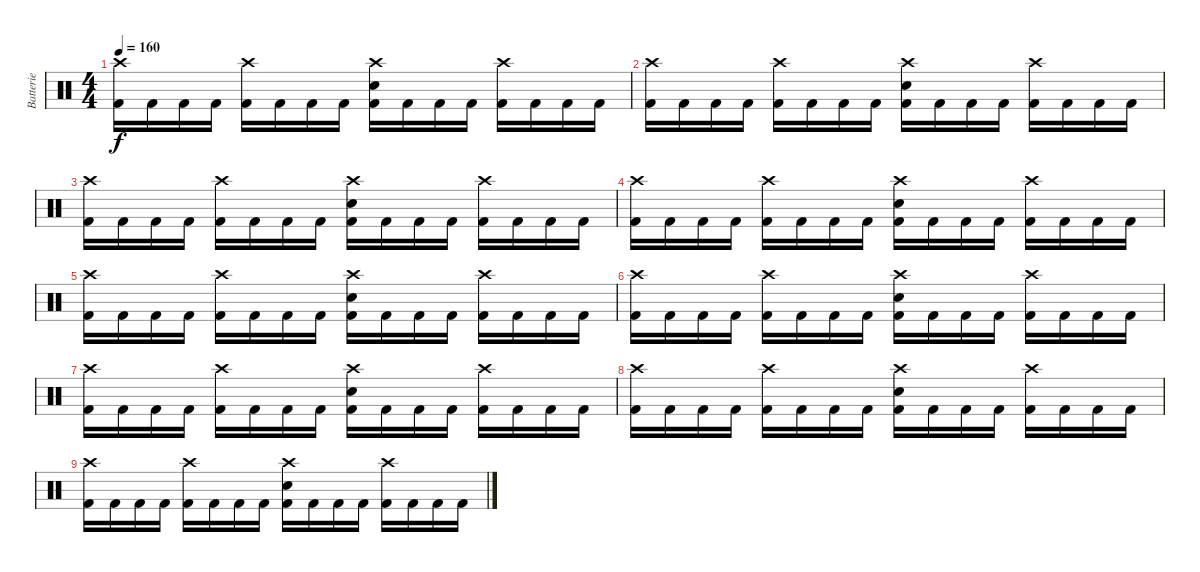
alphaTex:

\track ("Batterie" "Batterie") {instrument percussion}
\staff {score}
\articulation defaults
\ts (4 4)
\tempo 160
\clef neutral
\ks c
("Crash high (hit)" "Kick (hit) 2").16{dy f} "Kick (hit) 2".16 "Kick (hit) 2".16 "Kick (hit) 2".16 ("Crash high (hit)" "Kick (hit) 2").16 "Kick (hit) 2".16 "Kick (hit) 2".16 "Kick (hit) 2".16 ("Crash high (hit)" "Electric Snare (hit)" "Kick (hit) 2").16 "Kick (hit) 2".16 "Kick (hit) 2".16 "Kick (hit) 2".16 ("Crash high (hit)" "Kick (hit) 2").16 "Kick (hit) 2".16 "Kick (hit) 2".16 "Kick (hit) 2".16 |
("Crash high (hit)" "Kick (hit) 2").16 "Kick (hit) 2".16 "Kick (hit) 2".16 "Kick (hit) 2".16 ("Crash high (hit)" "Kick (hit) 2").16 "Kick (hit) 2".16 "Kick (hit) 2".16 "Kick (hit) 2".16 ("Crash high (hit)" "Electric Snare (hit)" "Kick (hit) 2").16 "Kick (hit) 2".16 "Kick (hit) 2".16 "Kick (hit) 2".16 ("Crash high (hit)" "Kick (hit) 2").16 "Kick (hit) 2".16 "Kick (hit) 2".16 "Kick (hit) 2".16 |
("Crash high (hit)" "Kick (hit) 2").16 "Kick (hit) 2".16 "Kick (hit) 2".16 "Kick (hit) 2".16 ("Crash high (hit)" "Kick (hit) 2").16 "Kick (hit) 2".16 "Kick (hit) 2".16 "Kick (hit) 2".16 ("Crash high (hit)" "Electric Snare (hit)" "Kick (hit) 2").16 "Kick (hit) 2".16 "Kick (hit) 2".16 "Kick (hit) 2".16 ("Crash high (hit)" "Kick (hit) 2").16 "Kick (hit) 2".16 "Kick (hit) 2".16 "Kick (hit) 2".16 |
("Crash high (hit)" "Kick (hit) 2").16 "Kick (hit) 2".16 "Kick (hit) 2".16 "Kick (hit) 2".16 ("Crash high (hit)" "Kick (hit) 2").16 "Kick (hit) 2".16 "Kick (hit) 2".16 "Kick (hit) 2".16 ("Crash high (hit)" "Electric Snare (hit)" "Kick (hit) 2").16 "Kick (hit) 2".16 "Kick (hit) 2".16 "Kick (hit) 2".16 ("Crash high (hit)" "Kick (hit) 2").16 "Kick (hit) 2".16 "Kick (hit) 2".16 "Kick (hit) 2".16 |
("Crash high (hit)" "Kick (hit) 2").16 "Kick (hit) 2".16 "Kick (hit) 2".16 "Kick (hit) 2".16 ("Crash high (hit)" "Kick (hit) 2").16 "Kick (hit) 2".16 "Kick (hit) 2".16 "Kick (hit) 2".16 ("Crash high (hit)" "Electric Snare (hit)" "Kick (hit) 2").16 "Kick (hit) 2".16 "Kick (hit) 2".16 "Kick (hit) 2".16 ("Crash high (hit)" "Kick (hit) 2").16 "Kick (hit) 2".16 "Kick (hit) 2".16 "Kick (hit) 2".16 |
("Crash high (hit)" "Kick (hit) 2").16 "Kick (hit) 2".16 "Kick (hit) 2".16 "Kick (hit) 2".16 ("Crash high (hit)" "Kick (hit) 2").16 "Kick (hit) 2".16 "Kick (hit) 2".16 "Kick (hit) 2".16 ("Crash high (hit)" "Electric Snare (hit)" "Kick (hit) 2").16 "Kick (hit) 2".16 "Kick (hit) 2".16 "Kick (hit) 2".16 ("Crash high (hit)" "Kick (hit) 2").16 "Kick (hit) 2".16 "Kick (hit) 2".16 "Kick (hit) 2".16 |
("Crash high (hit)" "Kick (hit) 2").16 "Kick (hit) 2".16 "Kick (hit) 2".16 "Kick (hit) 2".16 ("Crash high (hit)" "Kick (hit) 2").16 "Kick (hit) 2".16 "Kick (hit) 2".16 "Kick (hit) 2".16 ("Crash high (hit)" "Electric Snare (hit)" "Kick (hit) 2").16 "Kick (hit) 2".16 "Kick (hit) 2".16 "Kick (hit) 2".16 ("Crash high (hit)" "Kick (hit) 2").16 "Kick (hit) 2".16 "Kick (hit) 2".16 "Kick (hit) 2".16 |
("Crash high (hit)" "Kick (hit) 2").16 "Kick (hit) 2".16 "Kick (hit) 2".16 "Kick (hit) 2".16 ("Crash high (hit)" "Kick (hit) 2").16 "Kick (hit) 2".16 "Kick (hit) 2".16 "Kick (hit) 2".16 ("Crash high (hit)" "Electric Snare (hit)" "Kick (hit) 2").16 "Kick (hit) 2".16 "Kick (hit) 2".16 "Kick (hit) 2".16 ("Crash high (hit)" "Kick (hit) 2").16 "Kick (hit) 2".16 "Kick (hit) 2".16 "Kick (hit) 2".16 |
("Crash high (hit)" "Kick (hit) 2").16 "Kick (hit) 2".16 "Kick (hit) 2".16 "Kick (hit) 2".16 ("Crash high (hit)" "Kick (hit) 2").16 "Kick (hit) 2".16 "Kick (hit) 2".16 "Kick (hit) 2".16 ("Crash high (hit)" "Electric Snare (hit)" "Kick (hit) 2").16 "Kick (hit) 2".16 "Kick (hit) 2".16 "Kick (hit) 2".16 ("Crash high (hit)" "Kick (hit) 2").16 "Kick (hit) 2".16 "Kick (hit) 2".16 "Kick (hit) 2".16
